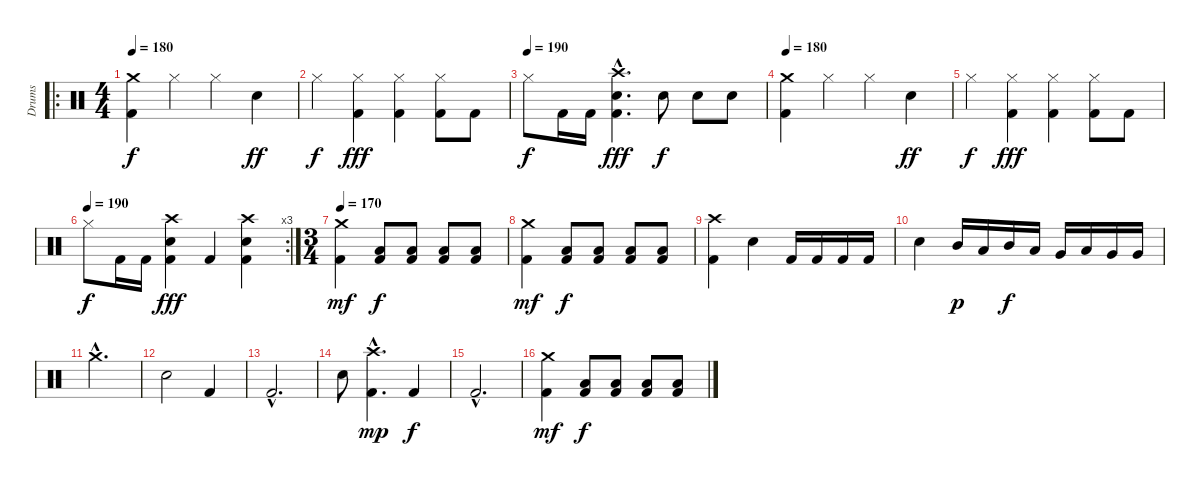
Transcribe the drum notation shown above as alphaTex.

\track ("Drums" "Drums") {instrument percussion}
\staff {score}
\articulation defaults
\ro
\ts (4 4)
\tempo 180
\clef neutral
\ks c
("Crash medium (hit)" "Kick (hit) 2").4{dy f} "Hi-Hat (closed)".4 "Hi-Hat (closed)".4 "Electric Snare (hit)".4{dy ff} |
"Hi-Hat (closed)".4{dy f} ("Hi-Hat (closed)" "Kick (hit) 2").4{dy fff} ("Hi-Hat (closed)" "Kick (hit) 2").4 ("Hi-Hat (closed)" "Kick (hit) 2").8 "Kick (hit) 2".8 |
\tempo (190)
"Hi-Hat (closed)".8{dy f} "Kick (hit) 2".16 "Kick (hit) 2".16 ("Crash high (hit)"{hac} "Electric Snare (hit)"{hac} "Kick (hit) 2"{hac}).4{d dy fff} "Electric Snare (hit)".8{dy f} "Electric Snare (hit)".8 "Electric Snare (hit)".8 |
\tempo 180
("Crash medium (hit)" "Kick (hit) 2").4 "Hi-Hat (closed)".4 "Hi-Hat (closed)".4 "Electric Snare (hit)".4{dy ff} |
"Hi-Hat (closed)".4{dy f} ("Hi-Hat (closed)" "Kick (hit) 2").4{dy fff} ("Hi-Hat (closed)" "Kick (hit) 2").4 ("Hi-Hat (closed)" "Kick (hit) 2").8 "Kick (hit) 2".8 |
\rc 3
\tempo (190)
"Hi-Hat (closed)".8{dy f} "Kick (hit) 2".16 "Kick (hit) 2".16 ("Crash high (hit)" "Electric Snare (hit)" "Kick (hit) 2").4{dy fff} "Kick (hit) 2".4 ("Crash high (hit)" "Electric Snare (hit)" "Kick (hit) 2").4 |
\ts (3 4)
\tempo 170
("Crash medium (hit)" "Kick (hit) 2").4{dy mf} ("Low Tom (hit)" "Kick (hit) 2").8{dy f} ("Low Tom (hit)" "Kick (hit) 2").8 ("Low Tom (hit)" "Kick (hit) 2").8 ("Low Tom (hit)" "Kick (hit) 2").8 |
("Crash medium (hit)" "Kick (hit) 2").4{dy mf} ("Low Tom (hit)" "Kick (hit) 2").8{dy f} ("Low Tom (hit)" "Kick (hit) 2").8 ("Low Tom (hit)" "Kick (hit) 2").8 ("Low Tom (hit)" "Kick (hit) 2").8 |
("Crash high (hit)" "Kick (hit) 2").4 "Electric Snare (hit)".4 "Kick (hit) 2".16 "Kick (hit) 2".16 "Kick (hit) 2".16 "Kick (hit) 2".16 |
"Electric Snare (hit)".4 "Mid Tom (hit)".16{dy p} "Low Tom (hit)".16 "Mid Tom (hit)".16{dy f} "Low Tom (hit)".16 "Very Low Tom (hit)".16 "Low Tom (hit)".16 "Very Low Tom (hit)".16 "Very Low Tom (hit)".16 |
"Crash medium (hit)"{hac}.2{d} |
"Electric Snare (hit)".2 "Kick (hit) 2".4 |
"Kick (hit) 2"{hac}.2{d} |
"Electric Snare (hit)".8 ("Crash high (hit)"{hac} "Kick (hit) 2"{hac}).4{d dy mp} "Kick (hit) 2".4{dy f} |
"Kick (hit) 2"{hac}.2{d} |
("Crash medium (hit)" "Kick (hit) 2").4{dy mf} ("Low Tom (hit)" "Kick (hit) 2").8{dy f} ("Low Tom (hit)" "Kick (hit) 2").8 ("Low Tom (hit)" "Kick (hit) 2").8 ("Low Tom (hit)" "Kick (hit) 2").8
